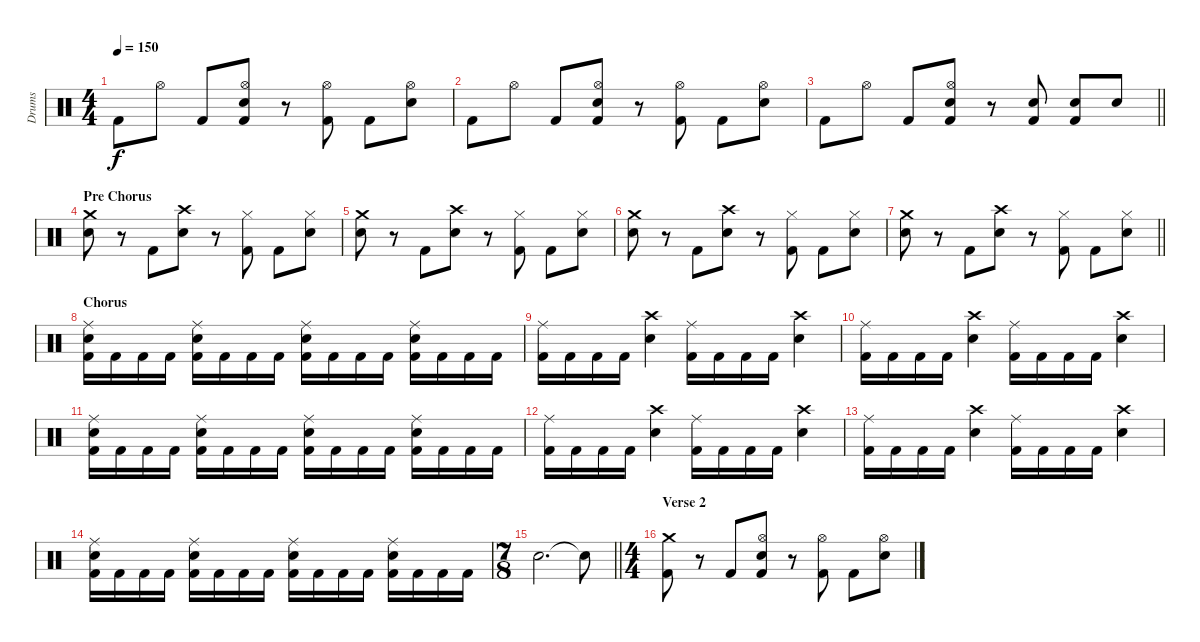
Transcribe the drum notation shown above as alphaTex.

\track ("Drums" "Drums") {instrument percussion}
\staff {score}
\articulation defaults
\ts (4 4)
\tempo 150
\clef neutral
\ks c "Kick (hit) 2".8{dy f} "Hi-Hat (open)".8 "Kick (hit) 2".8
("Hi-Hat (open)" "Snare (hit) 2" "Kick (hit) 2").8 r.8 ("Hi-Hat (open)" "Kick (hit) 2").8 "Kick (hit) 2".8 ("Hi-Hat (open)" "Snare (hit) 2").8 |
"Kick (hit) 2".8 "Hi-Hat (open)".8 "Kick (hit) 2".8 ("Hi-Hat (open)" "Snare (hit) 2" "Kick (hit) 2").8 r.8 ("Hi-Hat (open)" "Kick (hit) 2").8 "Kick (hit) 2".8 ("Hi-Hat (open)" "Snare (hit) 2").8 |
\barLineRight lightlight "Kick (hit) 2".8 "Hi-Hat (open)".8 "Kick (hit) 2".8
("Hi-Hat (open)" "Snare (hit) 2" "Kick (hit) 2").8 r.8 ("Snare (hit) 2" "Kick (hit) 2").8 ("Snare (hit) 2" "Kick (hit) 2").8 "Snare (hit) 2".8 |
\section ("" "Pre Chorus")
("Crash medium (hit)" "Snare (hit) 2").8 r.8 "Kick (hit) 2".8 ("Crash high (hit)" "Snare (hit) 2").8 r.8 ("Hi-Hat (closed)" "Kick (hit) 2").8 "Kick (hit) 2".8 ("Hi-Hat (closed)" "Snare (hit) 2").8 |
("Crash medium (hit)" "Snare (hit) 2").8 r.8 "Kick (hit) 2".8 ("Crash high (hit)" "Snare (hit) 2").8 r.8 ("Hi-Hat (closed)" "Kick (hit) 2").8 "Kick (hit) 2".8 ("Hi-Hat (closed)" "Snare (hit) 2").8 |
("Crash medium (hit)" "Snare (hit) 2").8 r.8 "Kick (hit) 2".8 ("Crash high (hit)" "Snare (hit) 2").8 r.8 ("Hi-Hat (closed)" "Kick (hit) 2").8 "Kick (hit) 2".8 ("Hi-Hat (closed)" "Snare (hit) 2").8 |
\barLineRight lightlight
("Crash medium (hit)" "Snare (hit) 2").8 r.8 "Kick (hit) 2".8 ("Crash high (hit)" "Snare (hit) 2").8 r.8 ("Hi-Hat (closed)" "Kick (hit) 2").8 "Kick (hit) 2".8 ("Hi-Hat (closed)" "Snare (hit) 2").8 |
\section ("" "Chorus")
("Ride (middle)" "Snare (hit) 2" "Kick (hit) 2").16 "Kick (hit) 2".16 "Kick (hit) 2".16 "Kick (hit) 2".16 ("Ride (middle)" "Snare (hit) 2" "Kick (hit) 2").16 "Kick (hit) 2".16 "Kick (hit) 2".16 "Kick (hit) 2".16 ("Ride (middle)" "Snare (hit) 2" "Kick (hit) 2").16 "Kick (hit) 2".16 "Kick (hit) 2".16 "Kick (hit) 2".16 ("Ride (middle)" "Snare (hit) 2" "Kick (hit) 2").16 "Kick (hit) 2".16 "Kick (hit) 2".16 "Kick (hit) 2".16 |
("Ride (middle)" "Kick (hit) 2").16 "Kick (hit) 2".16 "Kick (hit) 2".16 "Kick (hit) 2".16 ("Crash high (hit)" "Snare (hit) 2").4 ("Ride (middle)" "Kick (hit) 2").16 "Kick (hit) 2".16 "Kick (hit) 2".16 "Kick (hit) 2".16 ("Crash high (hit)" "Snare (hit) 2").4 |
("Ride (middle)" "Kick (hit) 2").16 "Kick (hit) 2".16 "Kick (hit) 2".16 "Kick (hit) 2".16 ("Crash high (hit)" "Snare (hit) 2").4 ("Ride (middle)" "Kick (hit) 2").16 "Kick (hit) 2".16 "Kick (hit) 2".16 "Kick (hit) 2".16 ("Crash high (hit)" "Snare (hit) 2").4 |
("Ride (middle)" "Snare (hit) 2" "Kick (hit) 2").16 "Kick (hit) 2".16 "Kick (hit) 2".16 "Kick (hit) 2".16 ("Ride (middle)" "Snare (hit) 2" "Kick (hit) 2").16 "Kick (hit) 2".16 "Kick (hit) 2".16 "Kick (hit) 2".16 ("Ride (middle)" "Snare (hit) 2" "Kick (hit) 2").16 "Kick (hit) 2".16 "Kick (hit) 2".16 "Kick (hit) 2".16 ("Ride (middle)" "Snare (hit) 2" "Kick (hit) 2").16 "Kick (hit) 2".16 "Kick (hit) 2".16 "Kick (hit) 2".16 |
("Ride (middle)" "Kick (hit) 2").16 "Kick (hit) 2".16 "Kick (hit) 2".16 "Kick (hit) 2".16 ("Crash high (hit)" "Snare (hit) 2").4 ("Ride (middle)" "Kick (hit) 2").16 "Kick (hit) 2".16 "Kick (hit) 2".16 "Kick (hit) 2".16 ("Crash high (hit)" "Snare (hit) 2").4 |
("Ride (middle)" "Kick (hit) 2").16 "Kick (hit) 2".16 "Kick (hit) 2".16 "Kick (hit) 2".16 ("Crash high (hit)" "Snare (hit) 2").4 ("Ride (middle)" "Kick (hit) 2").16 "Kick (hit) 2".16 "Kick (hit) 2".16 "Kick (hit) 2".16 ("Crash high (hit)" "Snare (hit) 2").4 |
("Ride (middle)" "Snare (hit) 2" "Kick (hit) 2").16 "Kick (hit) 2".16 "Kick (hit) 2".16 "Kick (hit) 2".16 ("Ride (middle)" "Snare (hit) 2" "Kick (hit) 2").16 "Kick (hit) 2".16 "Kick (hit) 2".16 "Kick (hit) 2".16 ("Ride (middle)" "Snare (hit) 2" "Kick (hit) 2").16 "Kick (hit) 2".16 "Kick (hit) 2".16 "Kick (hit) 2".16 ("Ride (middle)" "Snare (hit) 2" "Kick (hit) 2").16 "Kick (hit) 2".16 "Kick (hit) 2".16 "Kick (hit) 2".16 |
\ts (7 8)
\barLineRight lightlight "Snare (hit) 2".2{d} "Snare (hit)"{t}.8
|
\ts (4 4)
\section ("" "Verse 2")
("Crash medium (hit)" "Kick (hit) 2").8 r.8 "Kick (hit) 2".8 ("Hi-Hat (open)" "Snare (hit) 2" "Kick (hit) 2").8 r.8 ("Hi-Hat (open)" "Kick (hit) 2").8 "Kick (hit) 2".8 ("Hi-Hat (open)" "Snare (hit) 2").8
